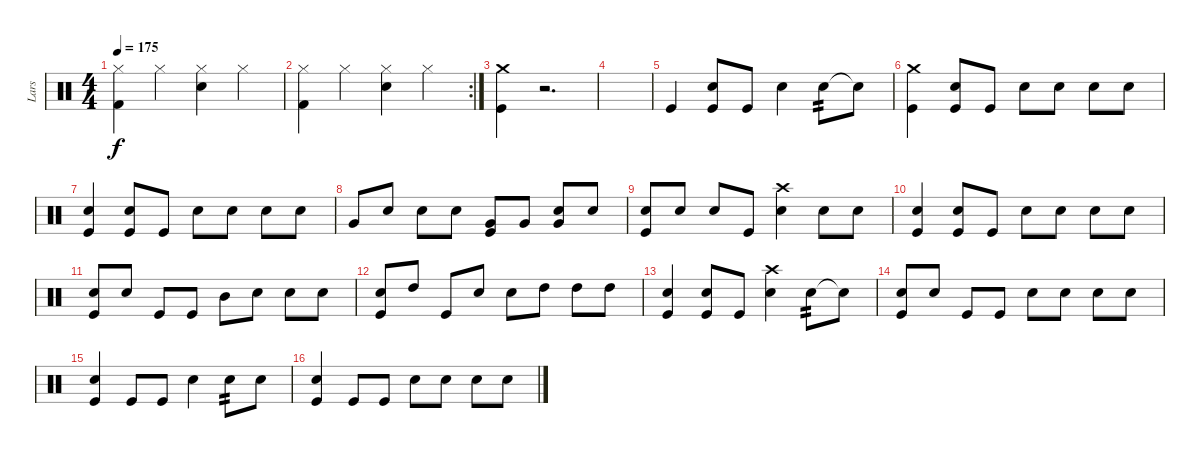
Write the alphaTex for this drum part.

\track ("Lars" "Lars") {instrument percussion}
\staff {score}
\articulation defaults
\ts (4 4)
\tempo 175
\clef neutral
\ks c
("Hi-Hat (closed)" "Kick (hit) 2").4{dy f} "Hi-Hat (closed)".4 ("Hi-Hat (closed)" "Electric Snare (hit)").4 "Hi-Hat (closed)".4 |
\rc 2
("Hi-Hat (closed)" "Kick (hit) 2").4 "Hi-Hat (closed)".4 ("Hi-Hat (closed)" "Electric Snare (hit)").4 "Hi-Hat (closed)".4 |
("Kick (hit)" "Crash medium (hit)").4 r.2{d} |
|
"Kick (hit)".4 ("Kick (hit)" "Electric Snare (hit)").8 "Kick (hit)".8 "Electric Snare (hit)".4 "Electric Snare (hit)".8{tp 2} "Electric Snare (hit)"{t}.8 |
("Kick (hit)" "Crash medium (hit)").4 ("Kick (hit)" "Electric Snare (hit)").8 "Kick (hit)".8 "Electric Snare (hit)".8 "Electric Snare (hit)".8 "Electric Snare (hit)".8 "Electric Snare (hit)".8 |
("Kick (hit)" "Electric Snare (hit)").4 ("Kick (hit)" "Electric Snare (hit)").8 "Kick (hit)".8 "Electric Snare (hit)".8 "Electric Snare (hit)".8 "Electric Snare (hit)".8 "Electric Snare (hit)".8 |
"Very Low Tom (hit)".8 "Electric Snare (hit)".8 "Electric Snare (hit)".8 "Electric Snare (hit)".8 ("Kick (hit)" "Very Low Tom (hit)").8 "Very Low Tom (hit)".8 ("Electric Snare (hit)" "Very Low Tom (hit)").8 "Electric Snare (hit)".8 |
("Kick (hit)" "Electric Snare (hit)").8 "Electric Snare (hit)".8 "Electric Snare (hit)".8 "Kick (hit)".8 ("Electric Snare (hit)" "Crash high (hit)").4 "Electric Snare (hit)".8 "Electric Snare (hit)".8 |
("Kick (hit)" "Electric Snare (hit)").4 ("Kick (hit)" "Electric Snare (hit)").8 "Kick (hit)".8 "Electric Snare (hit)".8 "Electric Snare (hit)".8 "Electric Snare (hit)".8 "Electric Snare (hit)".8 |
("Kick (hit)" "Electric Snare (hit)").8 "Electric Snare (hit)".8 "Kick (hit)".8 "Kick (hit)".8 "Mid Tom (hit)".8 "Electric Snare (hit)".8 "Electric Snare (hit)".8 "Electric Snare (hit)".8 |
("Kick (hit)" "Electric Snare (hit)").8 "High Tom (hit)".8 "Kick (hit)".8 "Electric Snare (hit)".8 "Electric Snare (hit)".8 "High Tom (hit)".8 "High Tom (hit)".8 "High Tom (hit)".8 |
("Kick (hit)" "Electric Snare (hit)").4 ("Kick (hit)" "Electric Snare (hit)").8 "Kick (hit)".8 ("Electric Snare (hit)" "Crash high (hit)").4 "Electric Snare (hit)".8{tp 2} "Snare (hit)"{t}.8 |
("Kick (hit)" "Electric Snare (hit)").8 "Electric Snare (hit)".8 "Kick (hit)".8 "Kick (hit)".8 "Electric Snare (hit)".8 "Electric Snare (hit)".8 "Electric Snare (hit)".8 "Electric Snare (hit)".8 |
("Kick (hit)" "Electric Snare (hit)").4 "Kick (hit)".8 "Kick (hit)".8 "Electric Snare (hit)".4 "Electric Snare (hit)".8{tp 2} "Electric Snare (hit)".8 |
("Kick (hit)" "Electric Snare (hit)").4 "Kick (hit)".8 "Kick (hit)".8 "Electric Snare (hit)".8 "Electric Snare (hit)".8 "Electric Snare (hit)".8 "Electric Snare (hit)".8
